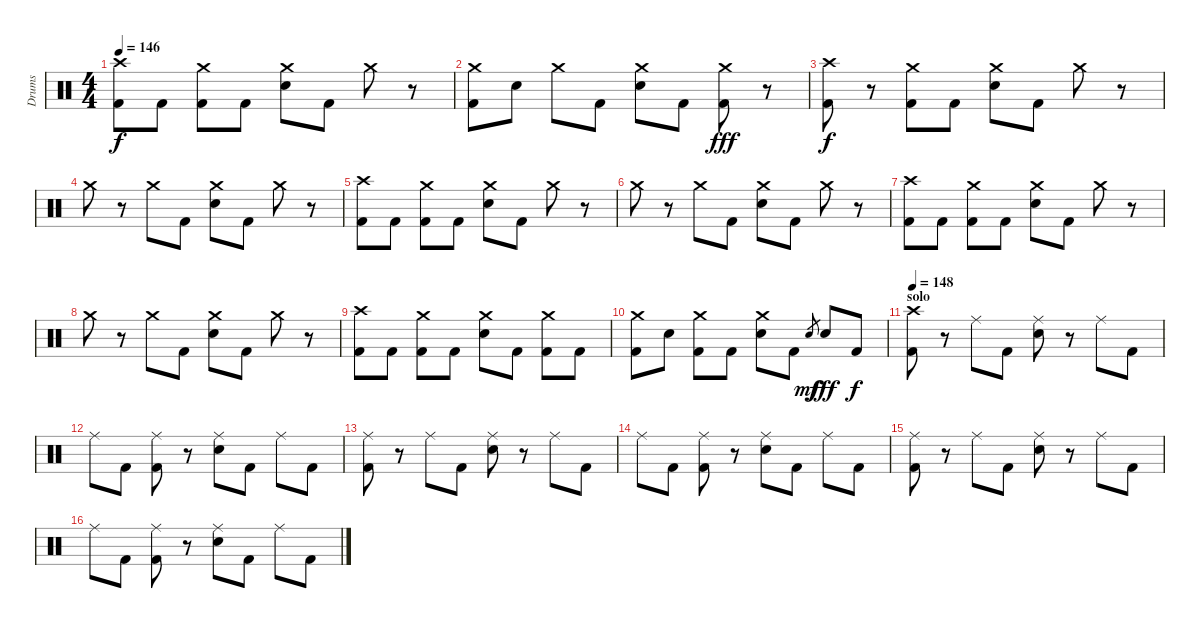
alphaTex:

\track ("Drums" "Drums") {instrument percussion}
\staff {score}
\articulation defaults
\ts (4 4)
\tempo 146
\clef neutral
\ks c
("Crash high (hit)" "Kick (hit) 2").8{dy f} "Kick (hit) 2".8 ("Crash medium (hit)" "Kick (hit) 2").8 "Kick (hit) 2".8 ("Crash medium (hit)" "Electric Snare (hit)").8 "Kick (hit) 2".8 "Crash medium (hit)".8 r.8 |
("Crash medium (hit)" "Kick (hit) 2").8 "Electric Snare (hit)".8 "Crash medium (hit)".8 "Kick (hit) 2".8 ("Crash medium (hit)" "Electric Snare (hit)").8 "Kick (hit) 2".8 ("Crash medium (hit)" "Kick (hit) 2").8{dy fff} r.8 |
("Crash high (hit)" "Kick (hit) 2").8{dy f} r.8 ("Crash medium (hit)" "Kick (hit) 2").8 "Kick (hit) 2".8 ("Crash medium (hit)" "Electric Snare (hit)").8 "Kick (hit) 2".8 "Crash medium (hit)".8 r.8 |
"Crash medium (hit)".8 r.8 "Crash medium (hit)".8 "Kick (hit) 2".8 ("Crash medium (hit)" "Electric Snare (hit)").8 "Kick (hit) 2".8 "Crash medium (hit)".8 r.8 |
("Crash high (hit)" "Kick (hit) 2").8 "Kick (hit) 2".8 ("Crash medium (hit)" "Kick (hit) 2").8 "Kick (hit) 2".8 ("Crash medium (hit)" "Electric Snare (hit)").8 "Kick (hit) 2".8 "Crash medium (hit)".8 r.8 |
"Crash medium (hit)".8 r.8 "Crash medium (hit)".8 "Kick (hit) 2".8 ("Crash medium (hit)" "Electric Snare (hit)").8 "Kick (hit) 2".8 "Crash medium (hit)".8 r.8 |
("Crash high (hit)" "Kick (hit) 2").8 "Kick (hit) 2".8 ("Crash medium (hit)" "Kick (hit) 2").8 "Kick (hit) 2".8 ("Crash medium (hit)" "Electric Snare (hit)").8 "Kick (hit) 2".8 "Crash medium (hit)".8 r.8 |
"Crash medium (hit)".8 r.8 "Crash medium (hit)".8 "Kick (hit) 2".8 ("Crash medium (hit)" "Electric Snare (hit)").8 "Kick (hit) 2".8 "Crash medium (hit)".8 r.8 |
("Crash high (hit)" "Kick (hit) 2").8 "Kick (hit) 2".8 ("Crash medium (hit)" "Kick (hit) 2").8 "Kick (hit) 2".8 ("Crash medium (hit)" "Electric Snare (hit)").8 "Kick (hit) 2".8 ("Crash medium (hit)" "Kick (hit) 2").8 "Kick (hit) 2".8 |
("Crash medium (hit)" "Kick (hit) 2").8 "Electric Snare (hit)".8 ("Crash medium (hit)" "Kick (hit) 2").8 "Kick (hit) 2".8 ("Crash medium (hit)" "Electric Snare (hit)").8 "Kick (hit) 2".8 "Electric Snare (hit)".8{gr dy mf} "Electric Snare (hit)".8{dy fff} "Kick (hit) 2".8{dy f} |
\section ("" "solo")
\tempo 148
("Crash high (hit)" "Kick (hit) 2").8 r.8 "Ride (middle)".8 "Kick (hit) 2".8 ("Ride (middle)" "Electric Snare (hit)").8 r.8 "Ride (middle)".8 "Kick (hit) 2".8 |
"Ride (middle)".8 "Kick (hit) 2".8 ("Ride (middle)" "Kick (hit) 2").8 r.8 ("Ride (middle)" "Electric Snare (hit)").8 "Kick (hit) 2".8 "Ride (middle)".8 "Kick (hit) 2".8 |
("Ride (middle)" "Kick (hit) 2").8 r.8 "Ride (middle)".8 "Kick (hit) 2".8 ("Ride (middle)" "Electric Snare (hit)").8 r.8 "Ride (middle)".8 "Kick (hit) 2".8 |
"Ride (middle)".8 "Kick (hit) 2".8 ("Ride (middle)" "Kick (hit) 2").8 r.8 ("Ride (middle)" "Electric Snare (hit)").8 "Kick (hit) 2".8 "Ride (middle)".8 "Kick (hit) 2".8 |
("Ride (middle)" "Kick (hit) 2").8 r.8 "Ride (middle)".8 "Kick (hit) 2".8 ("Ride (middle)" "Electric Snare (hit)").8 r.8 "Ride (middle)".8 "Kick (hit) 2".8 |
"Ride (middle)".8 "Kick (hit) 2".8 ("Ride (middle)" "Kick (hit) 2").8 r.8 ("Ride (middle)" "Electric Snare (hit)").8 "Kick (hit) 2".8 "Ride (middle)".8 "Kick (hit) 2".8
